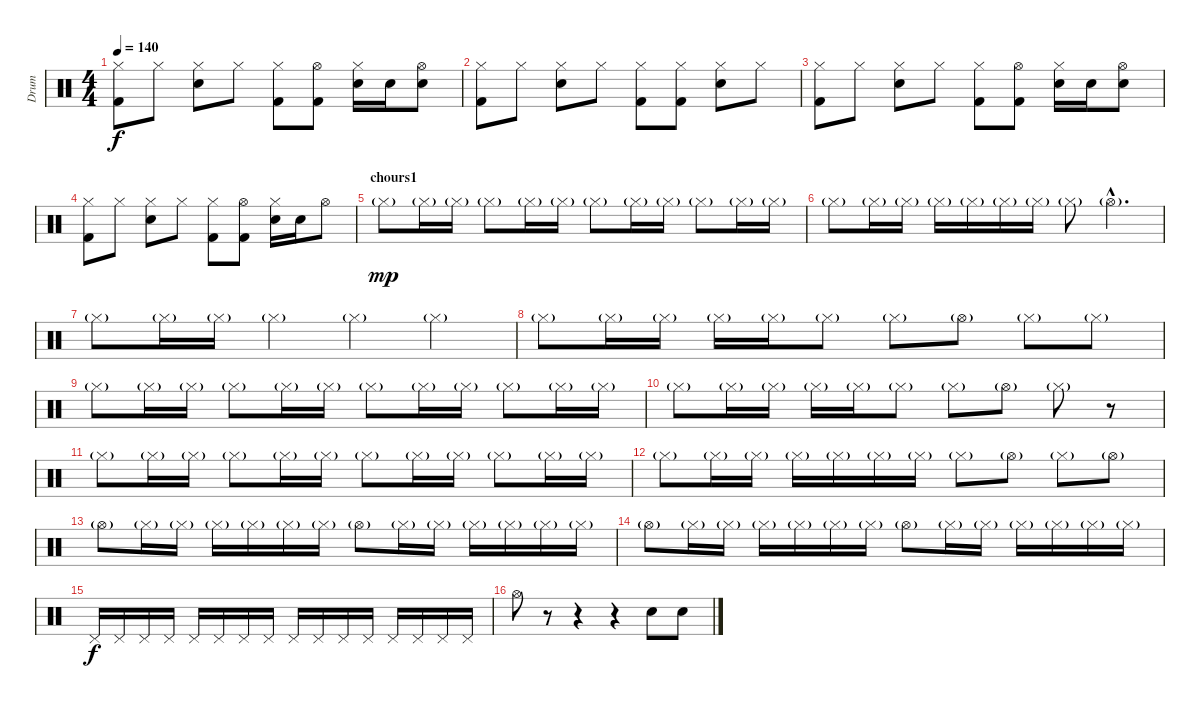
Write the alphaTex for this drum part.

\track ("Drum" "Drum") {instrument percussion}
\staff {score}
\articulation defaults
\ts (4 4)
\tempo 140
\clef neutral
\ks c
("Hi-Hat (closed)" "Kick (hit) 2").8{dy f} "Hi-Hat (closed)".8 ("Hi-Hat (closed)" "Electric Snare (hit)").8 "Hi-Hat (closed)".8 ("Hi-Hat (closed)" "Kick (hit) 2").8 ("Hi-Hat (open)" "Kick (hit) 2").8 ("Hi-Hat (closed)" "Electric Snare (hit)").16 "Electric Snare (hit)".16 ("Hi-Hat (open)" "Electric Snare (hit)").8 |
("Hi-Hat (closed)" "Kick (hit) 2").8 "Hi-Hat (closed)".8 ("Hi-Hat (closed)" "Electric Snare (hit)").8 "Hi-Hat (closed)".8 ("Hi-Hat (closed)" "Kick (hit) 2").8 ("Hi-Hat (closed)" "Kick (hit) 2").8 ("Hi-Hat (closed)" "Electric Snare (hit)").8 "Hi-Hat (closed)".8 |
("Hi-Hat (closed)" "Kick (hit) 2").8 "Hi-Hat (closed)".8 ("Hi-Hat (closed)" "Electric Snare (hit)").8 "Hi-Hat (closed)".8 ("Hi-Hat (closed)" "Kick (hit) 2").8 ("Hi-Hat (open)" "Kick (hit) 2").8 ("Hi-Hat (closed)" "Electric Snare (hit)").16 "Electric Snare (hit)".16 ("Hi-Hat (open)" "Electric Snare (hit)").8 |
("Hi-Hat (closed)" "Kick (hit) 2").8 "Hi-Hat (closed)".8 ("Hi-Hat (closed)" "Electric Snare (hit)").8 "Hi-Hat (closed)".8 ("Hi-Hat (closed)" "Kick (hit) 2").8 ("Hi-Hat (open)" "Kick (hit) 2").8 ("Hi-Hat (closed)" "Electric Snare (hit)").16 "Electric Snare (hit)".16 "Hi-Hat (open)".8 |
\section ("" "chours1")
"Hi-Hat (closed)"{g}.8{dy mp} "Hi-Hat (closed)"{g}.16 "Hi-Hat (closed)"{g}.16 "Hi-Hat (closed)"{g}.8 "Hi-Hat (closed)"{g}.16 "Hi-Hat (closed)"{g}.16 "Hi-Hat (closed)"{g}.8 "Hi-Hat (closed)"{g}.16 "Hi-Hat (closed)"{g}.16 "Hi-Hat (closed)"{g}.8 "Hi-Hat (closed)"{g}.16 "Hi-Hat (closed)"{g}.16 |
"Hi-Hat (closed)"{g}.8 "Hi-Hat (closed)"{g}.16 "Hi-Hat (closed)"{g}.16 "Hi-Hat (closed)"{g}.16 "Hi-Hat (closed)"{g}.16 "Hi-Hat (closed)"{g}.16 "Hi-Hat (closed)"{g}.16 "Hi-Hat (closed)"{g}.8 "Hi-Hat (open)"{g hac}.4{d} |
"Hi-Hat (closed)"{g}.8 "Hi-Hat (closed)"{g}.16 "Hi-Hat (closed)"{g}.16 "Hi-Hat (closed)"{g}.4 "Hi-Hat (closed)"{g}.4 "Hi-Hat (closed)"{g}.4 |
"Hi-Hat (closed)"{g}.8 "Hi-Hat (closed)"{g}.16 "Hi-Hat (closed)"{g}.16 "Hi-Hat (closed)"{g}.16 "Hi-Hat (closed)"{g}.16 "Hi-Hat (closed)"{g}.8 "Hi-Hat (closed)"{g}.8 "Hi-Hat (open)"{g}.8 "Hi-Hat (closed)"{g}.8 "Hi-Hat (closed)"{g}.8 |
"Hi-Hat (closed)"{g}.8 "Hi-Hat (closed)"{g}.16 "Hi-Hat (closed)"{g}.16 "Hi-Hat (closed)"{g}.8 "Hi-Hat (closed)"{g}.16 "Hi-Hat (closed)"{g}.16 "Hi-Hat (closed)"{g}.8 "Hi-Hat (closed)"{g}.16 "Hi-Hat (closed)"{g}.16 "Hi-Hat (closed)"{g}.8 "Hi-Hat (closed)"{g}.16 "Hi-Hat (closed)"{g}.16 |
"Hi-Hat (closed)"{g}.8 "Hi-Hat (closed)"{g}.16 "Hi-Hat (closed)"{g}.16 "Hi-Hat (closed)"{g}.16 "Hi-Hat (closed)"{g}.16 "Hi-Hat (closed)"{g}.8 "Hi-Hat (closed)"{g}.8 "Hi-Hat (open)"{g}.8 "Hi-Hat (closed)"{g}.8 r.8 |
"Hi-Hat (closed)"{g}.8 "Hi-Hat (closed)"{g}.16 "Hi-Hat (closed)"{g}.16 "Hi-Hat (closed)"{g}.8 "Hi-Hat (closed)"{g}.16 "Hi-Hat (closed)"{g}.16 "Hi-Hat (closed)"{g}.8 "Hi-Hat (closed)"{g}.16 "Hi-Hat (closed)"{g}.16 "Hi-Hat (closed)"{g}.8 "Hi-Hat (closed)"{g}.16 "Hi-Hat (closed)"{g}.16 |
"Hi-Hat (closed)"{g}.8 "Hi-Hat (closed)"{g}.16 "Hi-Hat (closed)"{g}.16 "Hi-Hat (closed)"{g}.16 "Hi-Hat (closed)"{g}.16 "Hi-Hat (closed)"{g}.16 "Hi-Hat (closed)"{g}.16 "Hi-Hat (closed)"{g}.8 "Hi-Hat (open)"{g}.8 "Hi-Hat (closed)"{g}.8 "Hi-Hat (open)"{g}.8 |
"Hi-Hat (open)"{g}.8 "Hi-Hat (closed)"{g}.16 "Hi-Hat (closed)"{g}.16 "Hi-Hat (closed)"{g}.16 "Hi-Hat (closed)"{g}.16 "Hi-Hat (closed)"{g}.16 "Hi-Hat (closed)"{g}.16 "Hi-Hat (open)"{g}.8 "Hi-Hat (closed)"{g}.16 "Hi-Hat (closed)"{g}.16 "Hi-Hat (closed)"{g}.16 "Hi-Hat (closed)"{g}.16 "Hi-Hat (closed)"{g}.16 "Hi-Hat (closed)"{g}.16 |
"Hi-Hat (open)"{g}.8 "Hi-Hat (closed)"{g}.16 "Hi-Hat (closed)"{g}.16 "Hi-Hat (closed)"{g}.16 "Hi-Hat (closed)"{g}.16 "Hi-Hat (closed)"{g}.16 "Hi-Hat (closed)"{g}.16 "Hi-Hat (open)"{g}.8 "Hi-Hat (closed)"{g}.16 "Hi-Hat (closed)"{g}.16 "Hi-Hat (closed)"{g}.16 "Hi-Hat (closed)"{g}.16 "Hi-Hat (closed)"{g}.16 "Hi-Hat (closed)"{g}.16 |
"Pedal Hi-Hat (hit)".16{dy f} "Pedal Hi-Hat (hit)".16 "Pedal Hi-Hat (hit)".16 "Pedal Hi-Hat (hit)".16 "Pedal Hi-Hat (hit)".16 "Pedal Hi-Hat (hit)".16 "Pedal Hi-Hat (hit)".16 "Pedal Hi-Hat (hit)".16 "Pedal Hi-Hat (hit)".16 "Pedal Hi-Hat (hit)".16 "Pedal Hi-Hat (hit)".16 "Pedal Hi-Hat (hit)".16 "Pedal Hi-Hat (hit)".16 "Pedal Hi-Hat (hit)".16 "Pedal Hi-Hat (hit)".16 "Pedal Hi-Hat (hit)".16 |
"Hi-Hat (open)".8 r.8 r.4 r.4 "Electric Snare (hit)".8 "Electric Snare (hit)".8
